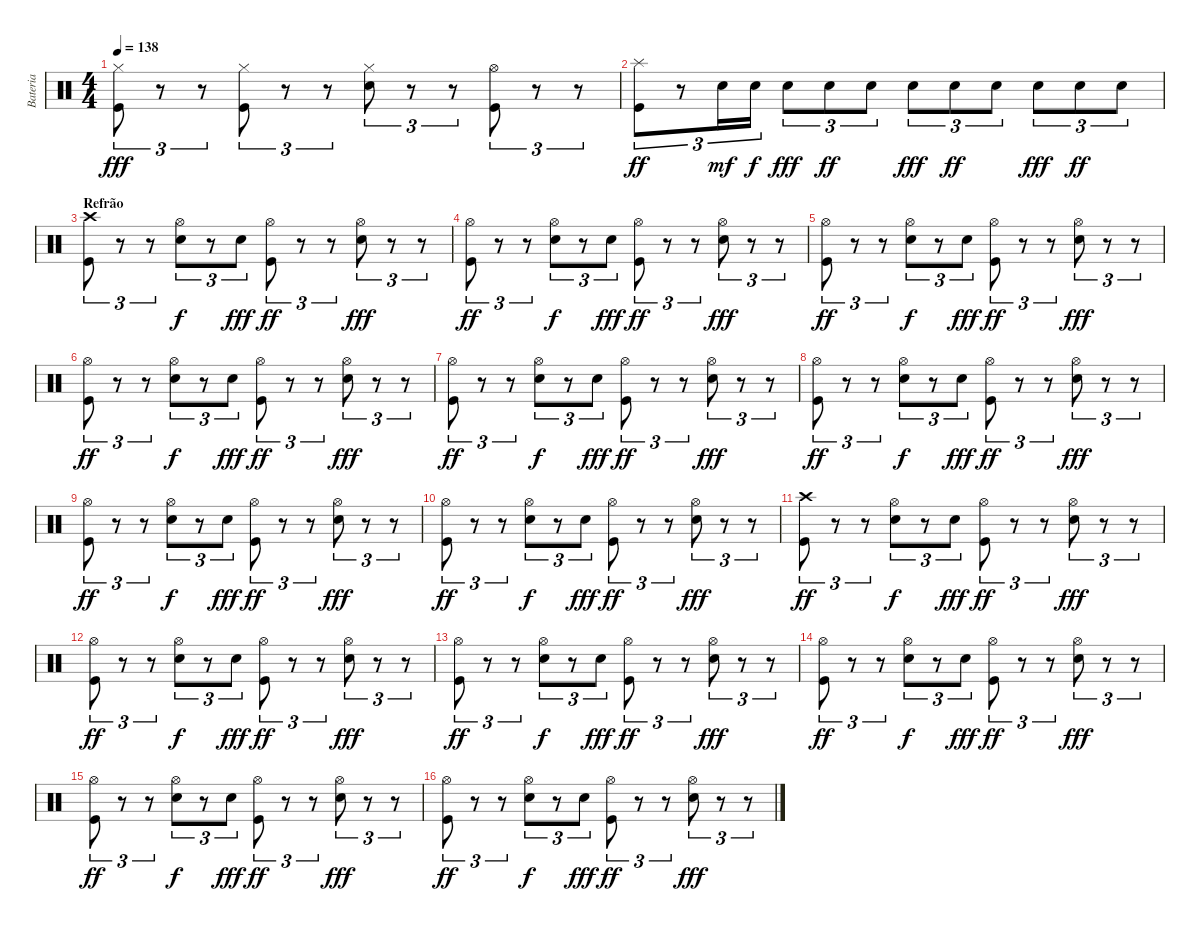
\track ("Bateria" "Bateria") {instrument percussion}
\staff {score}
\articulation defaults
\ts (4 4)
\tempo 138
\clef neutral
\ks c
("Kick (hit)" "Hi-Hat (closed)").8{tu (3 2) dy fff} r.8{tu (3 2)} r.8{tu (3 2)} ("Kick (hit)" "Hi-Hat (closed)").8{tu (3 2)} r.8{tu (3 2)} r.8{tu (3 2)} ("Electric Snare (hit)" "Hi-Hat (closed)").8{tu (3 2)} r.8{tu (3 2)} r.8{tu (3 2)} ("Kick (hit)" "Hi-Hat (open)").8{tu (3 2)} r.8{tu (3 2)} r.8{tu (3 2)} |
("Kick (hit)" "Splash (hit)").8{tu (3 2) dy ff} r.8{tu (3 2)} "Electric Snare (hit)".16{tu (3 2) dy mf} "Electric Snare (hit)".16{tu (3 2) dy f} "Electric Snare (hit)".8{tu (3 2) dy fff} "Electric Snare (hit)".8{tu (3 2) dy ff} "Electric Snare (hit)".8{tu (3 2)} "Electric Snare (hit)".8{tu (3 2) dy fff} "Electric Snare (hit)".8{tu (3 2) dy ff} "Electric Snare (hit)".8{tu (3 2)} "Electric Snare (hit)".8{tu (3 2) dy fff} "Electric Snare (hit)".8{tu (3 2) dy ff} "Electric Snare (hit)".8{tu (3 2)} |
\section ("" "Refrão")
("Kick (hit)" "Crash high (hit)").8{tu (3 2)} r.8{tu (3 2)} r.8{tu (3 2)} ("Electric Snare (hit)" "Hi-Hat (open)").8{tu (3 2) dy f} r.8{tu (3 2)} "Electric Snare (hit)".8{tu (3 2) dy fff} ("Kick (hit)" "Hi-Hat (open)").8{tu (3 2) dy ff} r.8{tu (3 2)} r.8{tu (3 2)} ("Electric Snare (hit)" "Hi-Hat (open)").8{tu (3 2) dy fff} r.8{tu (3 2)} r.8{tu (3 2)} |
("Kick (hit)" "Hi-Hat (open)").8{tu (3 2) dy ff} r.8{tu (3 2)} r.8{tu (3 2)} ("Electric Snare (hit)" "Hi-Hat (open)").8{tu (3 2) dy f} r.8{tu (3 2)} "Electric Snare (hit)".8{tu (3 2) dy fff} ("Kick (hit)" "Hi-Hat (open)").8{tu (3 2) dy ff} r.8{tu (3 2)} r.8{tu (3 2)} ("Electric Snare (hit)" "Hi-Hat (open)").8{tu (3 2) dy fff} r.8{tu (3 2)} r.8{tu (3 2)} |
("Kick (hit)" "Hi-Hat (open)").8{tu (3 2) dy ff} r.8{tu (3 2)} r.8{tu (3 2)} ("Electric Snare (hit)" "Hi-Hat (open)").8{tu (3 2) dy f} r.8{tu (3 2)} "Electric Snare (hit)".8{tu (3 2) dy fff} ("Kick (hit)" "Hi-Hat (open)").8{tu (3 2) dy ff} r.8{tu (3 2)} r.8{tu (3 2)} ("Electric Snare (hit)" "Hi-Hat (open)").8{tu (3 2) dy fff} r.8{tu (3 2)} r.8{tu (3 2)} |
("Kick (hit)" "Hi-Hat (open)").8{tu (3 2) dy ff} r.8{tu (3 2)} r.8{tu (3 2)} ("Electric Snare (hit)" "Hi-Hat (open)").8{tu (3 2) dy f} r.8{tu (3 2)} "Electric Snare (hit)".8{tu (3 2) dy fff} ("Kick (hit)" "Hi-Hat (open)").8{tu (3 2) dy ff} r.8{tu (3 2)} r.8{tu (3 2)} ("Electric Snare (hit)" "Hi-Hat (open)").8{tu (3 2) dy fff} r.8{tu (3 2)} r.8{tu (3 2)} |
("Kick (hit)" "Hi-Hat (open)").8{tu (3 2) dy ff} r.8{tu (3 2)} r.8{tu (3 2)} ("Electric Snare (hit)" "Hi-Hat (open)").8{tu (3 2) dy f} r.8{tu (3 2)} "Electric Snare (hit)".8{tu (3 2) dy fff} ("Kick (hit)" "Hi-Hat (open)").8{tu (3 2) dy ff} r.8{tu (3 2)} r.8{tu (3 2)} ("Electric Snare (hit)" "Hi-Hat (open)").8{tu (3 2) dy fff} r.8{tu (3 2)} r.8{tu (3 2)} |
("Kick (hit)" "Hi-Hat (open)").8{tu (3 2) dy ff} r.8{tu (3 2)} r.8{tu (3 2)} ("Electric Snare (hit)" "Hi-Hat (open)").8{tu (3 2) dy f} r.8{tu (3 2)} "Electric Snare (hit)".8{tu (3 2) dy fff} ("Kick (hit)" "Hi-Hat (open)").8{tu (3 2) dy ff} r.8{tu (3 2)} r.8{tu (3 2)} ("Electric Snare (hit)" "Hi-Hat (open)").8{tu (3 2) dy fff} r.8{tu (3 2)} r.8{tu (3 2)} |
("Kick (hit)" "Hi-Hat (open)").8{tu (3 2) dy ff} r.8{tu (3 2)} r.8{tu (3 2)} ("Electric Snare (hit)" "Hi-Hat (open)").8{tu (3 2) dy f} r.8{tu (3 2)} "Electric Snare (hit)".8{tu (3 2) dy fff} ("Kick (hit)" "Hi-Hat (open)").8{tu (3 2) dy ff} r.8{tu (3 2)} r.8{tu (3 2)} ("Electric Snare (hit)" "Hi-Hat (open)").8{tu (3 2) dy fff} r.8{tu (3 2)} r.8{tu (3 2)} |
("Kick (hit)" "Hi-Hat (open)").8{tu (3 2) dy ff} r.8{tu (3 2)} r.8{tu (3 2)} ("Electric Snare (hit)" "Hi-Hat (open)").8{tu (3 2) dy f} r.8{tu (3 2)} "Electric Snare (hit)".8{tu (3 2) dy fff} ("Kick (hit)" "Hi-Hat (open)").8{tu (3 2) dy ff} r.8{tu (3 2)} r.8{tu (3 2)} ("Electric Snare (hit)" "Hi-Hat (open)").8{tu (3 2) dy fff} r.8{tu (3 2)} r.8{tu (3 2)} |
("Kick (hit)" "Crash high (hit)").8{tu (3 2) dy ff} r.8{tu (3 2)} r.8{tu (3 2)} ("Electric Snare (hit)" "Hi-Hat (open)").8{tu (3 2) dy f} r.8{tu (3 2)} "Electric Snare (hit)".8{tu (3 2) dy fff} ("Kick (hit)" "Hi-Hat (open)").8{tu (3 2) dy ff} r.8{tu (3 2)} r.8{tu (3 2)} ("Electric Snare (hit)" "Hi-Hat (open)").8{tu (3 2) dy fff} r.8{tu (3 2)} r.8{tu (3 2)} |
("Kick (hit)" "Hi-Hat (open)").8{tu (3 2) dy ff} r.8{tu (3 2)} r.8{tu (3 2)} ("Electric Snare (hit)" "Hi-Hat (open)").8{tu (3 2) dy f} r.8{tu (3 2)} "Electric Snare (hit)".8{tu (3 2) dy fff} ("Kick (hit)" "Hi-Hat (open)").8{tu (3 2) dy ff} r.8{tu (3 2)} r.8{tu (3 2)} ("Electric Snare (hit)" "Hi-Hat (open)").8{tu (3 2) dy fff} r.8{tu (3 2)} r.8{tu (3 2)} |
("Kick (hit)" "Hi-Hat (open)").8{tu (3 2) dy ff} r.8{tu (3 2)} r.8{tu (3 2)} ("Electric Snare (hit)" "Hi-Hat (open)").8{tu (3 2) dy f} r.8{tu (3 2)} "Electric Snare (hit)".8{tu (3 2) dy fff} ("Kick (hit)" "Hi-Hat (open)").8{tu (3 2) dy ff} r.8{tu (3 2)} r.8{tu (3 2)} ("Electric Snare (hit)" "Hi-Hat (open)").8{tu (3 2) dy fff} r.8{tu (3 2)} r.8{tu (3 2)} |
("Kick (hit)" "Hi-Hat (open)").8{tu (3 2) dy ff} r.8{tu (3 2)} r.8{tu (3 2)} ("Electric Snare (hit)" "Hi-Hat (open)").8{tu (3 2) dy f} r.8{tu (3 2)} "Electric Snare (hit)".8{tu (3 2) dy fff} ("Kick (hit)" "Hi-Hat (open)").8{tu (3 2) dy ff} r.8{tu (3 2)} r.8{tu (3 2)} ("Electric Snare (hit)" "Hi-Hat (open)").8{tu (3 2) dy fff} r.8{tu (3 2)} r.8{tu (3 2)} |
("Kick (hit)" "Hi-Hat (open)").8{tu (3 2) dy ff} r.8{tu (3 2)} r.8{tu (3 2)} ("Electric Snare (hit)" "Hi-Hat (open)").8{tu (3 2) dy f} r.8{tu (3 2)} "Electric Snare (hit)".8{tu (3 2) dy fff} ("Kick (hit)" "Hi-Hat (open)").8{tu (3 2) dy ff} r.8{tu (3 2)} r.8{tu (3 2)} ("Electric Snare (hit)" "Hi-Hat (open)").8{tu (3 2) dy fff} r.8{tu (3 2)} r.8{tu (3 2)} |
("Kick (hit)" "Hi-Hat (open)").8{tu (3 2) dy ff} r.8{tu (3 2)} r.8{tu (3 2)} ("Electric Snare (hit)" "Hi-Hat (open)").8{tu (3 2) dy f} r.8{tu (3 2)} "Electric Snare (hit)".8{tu (3 2) dy fff} ("Kick (hit)" "Hi-Hat (open)").8{tu (3 2) dy ff} r.8{tu (3 2)} r.8{tu (3 2)} ("Electric Snare (hit)" "Hi-Hat (open)").8{tu (3 2) dy fff} r.8{tu (3 2)} r.8{tu (3 2)}
